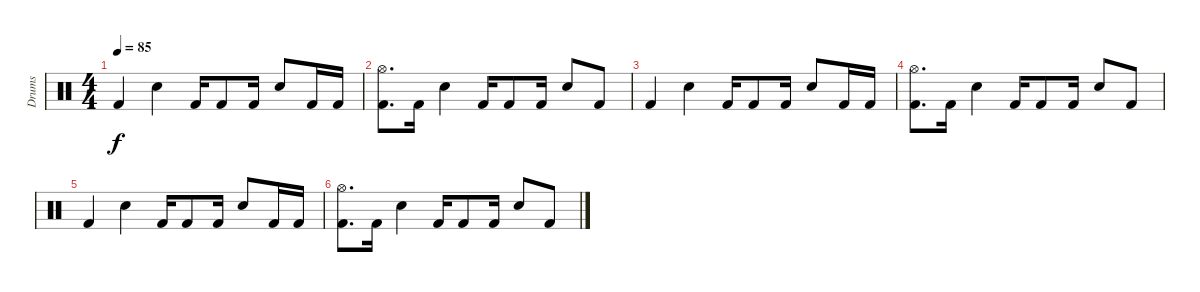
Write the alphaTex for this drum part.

\track ("Drums" "Drums") {instrument percussion}
\staff {score}
\articulation defaults
\ts (4 4)
\tempo 85
\clef neutral
\ks c "Kick (hit) 2".4{dy f} "Snare (hit) 2".4 "Kick (hit) 2".16 "Kick (hit) 2".8 "Kick (hit) 2".16 "Snare (hit) 2".8 "Kick (hit) 2".16 "Kick (hit) 2".16
|
("Hi-Hat (open)" "Kick (hit) 2").8{d} "Kick (hit) 2".16 "Snare (hit) 2".4 "Kick (hit) 2".16 "Kick (hit) 2".8 "Kick (hit) 2".16 "Snare (hit) 2".8 "Kick (hit) 2".8 |
"Kick (hit) 2".4 "Snare (hit) 2".4 "Kick (hit) 2".16 "Kick (hit) 2".8 "Kick (hit) 2".16 "Snare (hit) 2".8 "Kick (hit) 2".16 "Kick (hit) 2".16 |
("Hi-Hat (open)" "Kick (hit) 2").8{d} "Kick (hit) 2".16 "Snare (hit) 2".4 "Kick (hit) 2".16 "Kick (hit) 2".8 "Kick (hit) 2".16 "Snare (hit) 2".8 "Kick (hit) 2".8 |
"Kick (hit) 2".4 "Snare (hit) 2".4 "Kick (hit) 2".16 "Kick (hit) 2".8 "Kick (hit) 2".16 "Snare (hit) 2".8 "Kick (hit) 2".16 "Kick (hit) 2".16 |
("Hi-Hat (open)" "Kick (hit) 2").8{d} "Kick (hit) 2".16 "Snare (hit) 2".4 "Kick (hit) 2".16 "Kick (hit) 2".8 "Kick (hit) 2".16 "Snare (hit) 2".8 "Kick (hit) 2".8
